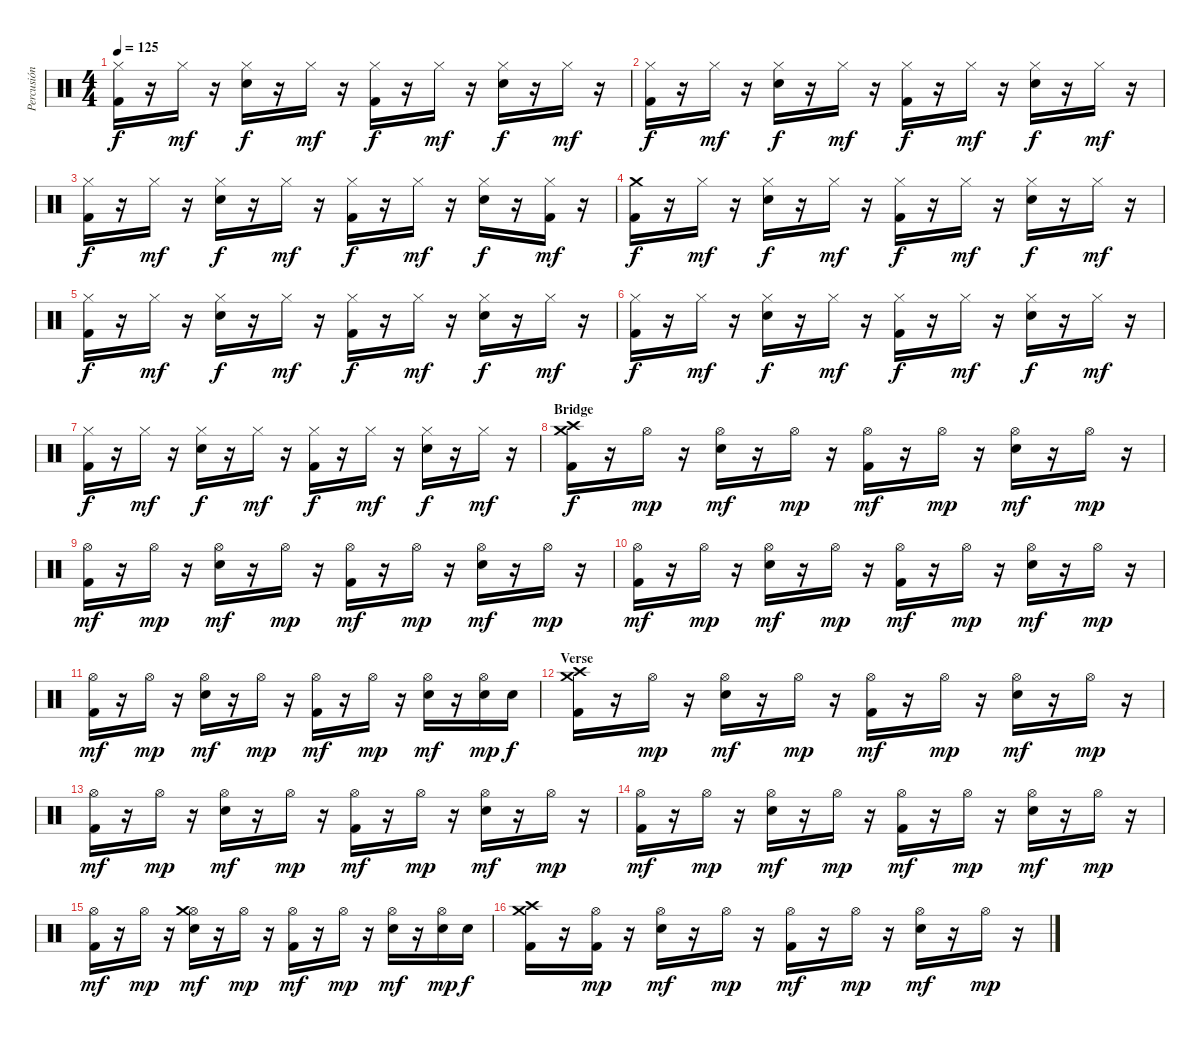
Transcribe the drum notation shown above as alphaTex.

\track ("Percusión" "Percusión") {instrument percussion}
\staff {score}
\articulation defaults
\ts (4 4)
\tempo 125
\clef neutral
\ks c
("Hi-Hat (closed)" "Kick (hit) 2").16{dy f} r.16 "Hi-Hat (closed)".16{dy mf} r.16 ("Hi-Hat (closed)" "Electric Snare (hit)").16{dy f} r.16 "Hi-Hat (closed)".16{dy mf} r.16 ("Hi-Hat (closed)" "Kick (hit) 2").16{dy f} r.16 "Hi-Hat (closed)".16{dy mf} r.16 ("Hi-Hat (closed)" "Electric Snare (hit)").16{dy f} r.16 "Hi-Hat (closed)".16{dy mf} r.16 |
("Hi-Hat (closed)" "Kick (hit) 2").16{dy f} r.16 "Hi-Hat (closed)".16{dy mf} r.16 ("Hi-Hat (closed)" "Electric Snare (hit)").16{dy f} r.16 "Hi-Hat (closed)".16{dy mf} r.16 ("Hi-Hat (closed)" "Kick (hit) 2").16{dy f} r.16 "Hi-Hat (closed)".16{dy mf} r.16 ("Hi-Hat (closed)" "Electric Snare (hit)").16{dy f} r.16 "Hi-Hat (closed)".16{dy mf} r.16 |
("Hi-Hat (closed)" "Kick (hit) 2").16{dy f} r.16 "Hi-Hat (closed)".16{dy mf} r.16 ("Hi-Hat (closed)" "Electric Snare (hit)").16{dy f} r.16 "Hi-Hat (closed)".16{dy mf} r.16 ("Hi-Hat (closed)" "Kick (hit) 2").16{dy f} r.16 "Hi-Hat (closed)".16{dy mf} r.16 ("Hi-Hat (closed)" "Electric Snare (hit)").16{dy f} r.16 ("Hi-Hat (closed)" "Kick (hit) 2").16{dy mf} r.16 |
("Crash medium (hit)" "Kick (hit) 2").16{dy f} r.16 "Hi-Hat (closed)".16{dy mf} r.16 ("Hi-Hat (closed)" "Electric Snare (hit)").16{dy f} r.16 "Hi-Hat (closed)".16{dy mf} r.16 ("Hi-Hat (closed)" "Kick (hit) 2").16{dy f} r.16 "Hi-Hat (closed)".16{dy mf} r.16 ("Hi-Hat (closed)" "Electric Snare (hit)").16{dy f} r.16 "Hi-Hat (closed)".16{dy mf} r.16 |
("Hi-Hat (closed)" "Kick (hit) 2").16{dy f} r.16 "Hi-Hat (closed)".16{dy mf} r.16 ("Hi-Hat (closed)" "Electric Snare (hit)").16{dy f} r.16 "Hi-Hat (closed)".16{dy mf} r.16 ("Hi-Hat (closed)" "Kick (hit) 2").16{dy f} r.16 "Hi-Hat (closed)".16{dy mf} r.16 ("Hi-Hat (closed)" "Electric Snare (hit)").16{dy f} r.16 "Hi-Hat (closed)".16{dy mf} r.16 |
("Hi-Hat (closed)" "Kick (hit) 2").16{dy f} r.16 "Hi-Hat (closed)".16{dy mf} r.16 ("Hi-Hat (closed)" "Electric Snare (hit)").16{dy f} r.16 "Hi-Hat (closed)".16{dy mf} r.16 ("Hi-Hat (closed)" "Kick (hit) 2").16{dy f} r.16 "Hi-Hat (closed)".16{dy mf} r.16 ("Hi-Hat (closed)" "Electric Snare (hit)").16{dy f} r.16 "Hi-Hat (closed)".16{dy mf} r.16 |
("Hi-Hat (closed)" "Kick (hit) 2").16{dy f} r.16 "Hi-Hat (closed)".16{dy mf} r.16 ("Hi-Hat (closed)" "Electric Snare (hit)").16{dy f} r.16 "Hi-Hat (closed)".16{dy mf} r.16 ("Hi-Hat (closed)" "Kick (hit) 2").16{dy f} r.16 "Hi-Hat (closed)".16{dy mf} r.16 ("Hi-Hat (closed)" "Electric Snare (hit)").16{dy f} r.16 "Hi-Hat (closed)".16{dy mf} r.16 |
\section ("" "Bridge")
("Crash medium (hit)" "Crash high (hit)" "Kick (hit) 2").16{dy f} r.16 "Hi-Hat (open)".16{dy mp} r.16 ("Hi-Hat (open)" "Electric Snare (hit)").16{dy mf} r.16 "Hi-Hat (open)".16{dy mp} r.16 ("Hi-Hat (open)" "Kick (hit) 2").16{dy mf} r.16 "Hi-Hat (open)".16{dy mp} r.16 ("Hi-Hat (open)" "Electric Snare (hit)").16{dy mf} r.16 "Hi-Hat (open)".16{dy mp} r.16 |
("Hi-Hat (open)" "Kick (hit) 2").16{dy mf} r.16 "Hi-Hat (open)".16{dy mp} r.16 ("Hi-Hat (open)" "Electric Snare (hit)").16{dy mf} r.16 "Hi-Hat (open)".16{dy mp} r.16 ("Hi-Hat (open)" "Kick (hit) 2").16{dy mf} r.16 "Hi-Hat (open)".16{dy mp} r.16 ("Hi-Hat (open)" "Electric Snare (hit)").16{dy mf} r.16 "Hi-Hat (open)".16{dy mp} r.16 |
("Hi-Hat (open)" "Kick (hit) 2").16{dy mf} r.16 "Hi-Hat (open)".16{dy mp} r.16 ("Hi-Hat (open)" "Electric Snare (hit)").16{dy mf} r.16 "Hi-Hat (open)".16{dy mp} r.16 ("Hi-Hat (open)" "Kick (hit) 2").16{dy mf} r.16 "Hi-Hat (open)".16{dy mp} r.16 ("Hi-Hat (open)" "Electric Snare (hit)").16{dy mf} r.16 "Hi-Hat (open)".16{dy mp} r.16 |
("Hi-Hat (open)" "Kick (hit) 2").16{dy mf} r.16 "Hi-Hat (open)".16{dy mp} r.16 ("Hi-Hat (open)" "Electric Snare (hit)").16{dy mf} r.16 "Hi-Hat (open)".16{dy mp} r.16 ("Hi-Hat (open)" "Kick (hit) 2").16{dy mf} r.16 "Hi-Hat (open)".16{dy mp} r.16 ("Hi-Hat (open)" "Electric Snare (hit)").16{dy mf} r.16 ("Hi-Hat (open)" "Electric Snare (hit)").16{dy mp} "Electric Snare (hit)".16{dy f} |
\section ("" "Verse")
("Crash medium (hit)" "Crash high (hit)" "Kick (hit) 2").16 r.16 "Hi-Hat (open)".16{dy mp} r.16 ("Hi-Hat (open)" "Electric Snare (hit)").16{dy mf} r.16 "Hi-Hat (open)".16{dy mp} r.16 ("Hi-Hat (open)" "Kick (hit) 2").16{dy mf} r.16 "Hi-Hat (open)".16{dy mp} r.16 ("Hi-Hat (open)" "Electric Snare (hit)").16{dy mf} r.16 "Hi-Hat (open)".16{dy mp} r.16 |
("Hi-Hat (open)" "Kick (hit) 2").16{dy mf} r.16 "Hi-Hat (open)".16{dy mp} r.16 ("Hi-Hat (open)" "Electric Snare (hit)").16{dy mf} r.16 "Hi-Hat (open)".16{dy mp} r.16 ("Hi-Hat (open)" "Kick (hit) 2").16{dy mf} r.16 "Hi-Hat (open)".16{dy mp} r.16 ("Hi-Hat (open)" "Electric Snare (hit)").16{dy mf} r.16 "Hi-Hat (open)".16{dy mp} r.16 |
("Hi-Hat (open)" "Kick (hit) 2").16{dy mf} r.16 "Hi-Hat (open)".16{dy mp} r.16 ("Hi-Hat (open)" "Electric Snare (hit)").16{dy mf} r.16 "Hi-Hat (open)".16{dy mp} r.16 ("Hi-Hat (open)" "Kick (hit) 2").16{dy mf} r.16 "Hi-Hat (open)".16{dy mp} r.16 ("Hi-Hat (open)" "Electric Snare (hit)").16{dy mf} r.16 "Hi-Hat (open)".16{dy mp} r.16 |
("Hi-Hat (open)" "Kick (hit) 2").16{dy mf} r.16 "Hi-Hat (open)".16{dy mp} r.16 ("Hi-Hat (open)" "Crash medium (hit)" "Electric Snare (hit)").16{dy mf} r.16 "Hi-Hat (open)".16{dy mp} r.16 ("Hi-Hat (open)" "Kick (hit) 2").16{dy mf} r.16 "Hi-Hat (open)".16{dy mp} r.16 ("Hi-Hat (open)" "Electric Snare (hit)").16{dy mf} r.16 ("Hi-Hat (open)" "Electric Snare (hit)").16{dy mp} "Electric Snare (hit)".16{dy f} |
("Crash medium (hit)" "Crash high (hit)" "Kick (hit) 2").16 r.16 ("Hi-Hat (open)" "Kick (hit) 2").16{dy mp} r.16 ("Hi-Hat (open)" "Electric Snare (hit)").16{dy mf} r.16 "Hi-Hat (open)".16{dy mp} r.16 ("Hi-Hat (open)" "Kick (hit) 2").16{dy mf} r.16 "Hi-Hat (open)".16{dy mp} r.16 ("Hi-Hat (open)" "Electric Snare (hit)").16{dy mf} r.16 "Hi-Hat (open)".16{dy mp} r.16
